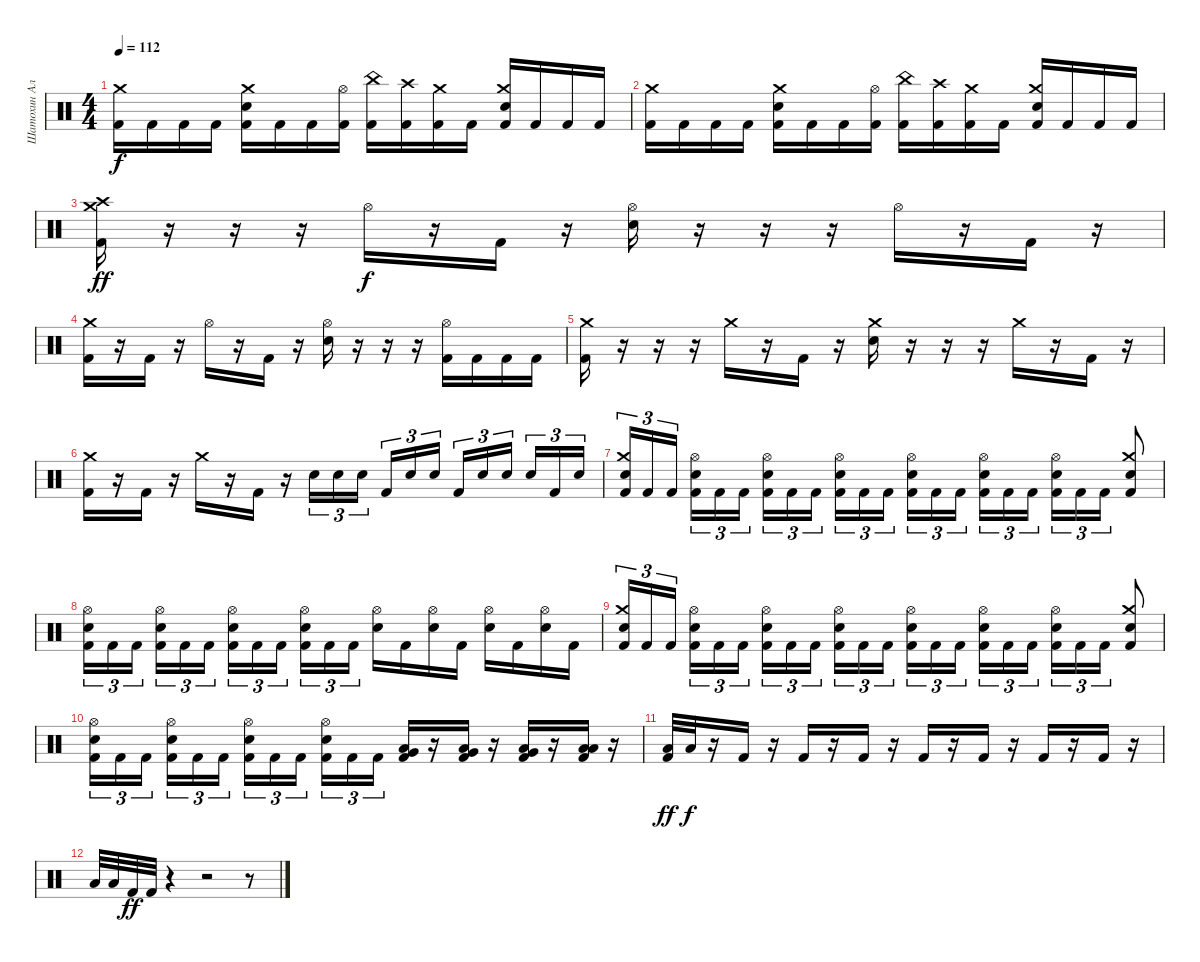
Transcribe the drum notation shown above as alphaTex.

\track ("Шатохин Алексей" "Шатохин Ал") {instrument percussion}
\staff {score}
\articulation defaults
\ts (4 4)
\tempo 112
\clef neutral
\ks c
("Kick (hit) 2" "Crash medium (hit)").16{dy f} "Kick (hit) 2".16 "Kick (hit) 2".16 "Kick (hit) 2".16 ("Kick (hit) 2" "Electric Snare (hit)" "Crash medium (hit)").16 "Kick (hit) 2".16 "Kick (hit) 2".16 ("Kick (hit) 2" "Hi-Hat (open)").16 ("Kick (hit) 2" "China (hit)").16 ("Kick (hit) 2" "Crash high (hit)").16 ("Kick (hit) 2" "Crash medium (hit)").16 "Kick (hit) 2".16 ("Kick (hit) 2" "Electric Snare (hit)" "Crash medium (hit)").16 "Kick (hit) 2".16 "Kick (hit) 2".16 "Kick (hit) 2".16 |
("Kick (hit) 2" "Crash medium (hit)").16 "Kick (hit) 2".16 "Kick (hit) 2".16 "Kick (hit) 2".16 ("Kick (hit) 2" "Electric Snare (hit)" "Crash medium (hit)").16 "Kick (hit) 2".16 "Kick (hit) 2".16 ("Kick (hit) 2" "Hi-Hat (open)").16 ("Kick (hit) 2" "China (hit)").16 ("Kick (hit) 2" "Crash high (hit)").16 ("Kick (hit) 2" "Crash medium (hit)").16 "Kick (hit) 2".16 ("Kick (hit) 2" "Electric Snare (hit)" "Crash medium (hit)").16 "Kick (hit) 2".16 "Kick (hit) 2".16 "Kick (hit) 2".16 |
("Crash high (hit)" "Crash medium (hit)" "Kick (hit) 2").16{dy ff} r.16 r.16 r.16 "Hi-Hat (open)".16{dy f} r.16 "Kick (hit) 2".16 r.16 ("Hi-Hat (open)" "Electric Snare (hit)").16 r.16 r.16 r.16 "Hi-Hat (open)".16 r.16 "Kick (hit) 2".16 r.16 |
("Crash medium (hit)" "Kick (hit) 2").16 r.16 "Kick (hit) 2".16 r.16 "Hi-Hat (open)".16 r.16 "Kick (hit) 2".16 r.16 ("Hi-Hat (open)" "Electric Snare (hit)").16 r.16 r.16 r.16 ("Hi-Hat (open)" "Kick (hit) 2").16 "Kick (hit) 2".16 "Kick (hit) 2".16 "Kick (hit) 2".16 |
("Crash medium (hit)" "Kick (hit) 2").16 r.16 r.16 r.16 "Crash medium (hit)".16 r.16 "Kick (hit) 2".16 r.16 ("Crash medium (hit)" "Electric Snare (hit)").16 r.16 r.16 r.16 "Crash medium (hit)".16 r.16 "Kick (hit) 2".16 r.16 |
("Crash medium (hit)" "Kick (hit) 2").16 r.16 "Kick (hit) 2".16 r.16 "Crash medium (hit)".16 r.16 "Kick (hit) 2".16 r.16 "Electric Snare (hit)".16{tu (3 2)} "Electric Snare (hit)".16{tu (3 2)} "Electric Snare (hit)".16{tu (3 2) beam splitsecondary} "Kick (hit) 2".16{tu (3 2)} "Electric Snare (hit)".16{tu (3 2)} "Electric Snare (hit)".16{tu (3 2)} "Kick (hit) 2".16{tu (3 2)} "Electric Snare (hit)".16{tu (3 2)} "Electric Snare (hit)".16{tu (3 2) beam splitsecondary} "Electric Snare (hit)".16{tu (3 2)} "Kick (hit) 2".16{tu (3 2)} "Electric Snare (hit)".16{tu (3 2)} |
("Crash medium (hit)" "Electric Snare (hit)" "Kick (hit) 2").16{tu (3 2)} "Kick (hit) 2".16{tu (3 2)} "Kick (hit) 2".16{tu (3 2) beam splitsecondary} ("Hi-Hat (open)" "Electric Snare (hit)" "Kick (hit) 2").16{tu (3 2)} "Kick (hit) 2".16{tu (3 2)} "Kick (hit) 2".16{tu (3 2)} ("Hi-Hat (open)" "Electric Snare (hit)" "Kick (hit) 2").16{tu (3 2)} "Kick (hit) 2".16{tu (3 2)} "Kick (hit) 2".16{tu (3 2) beam splitsecondary} ("Hi-Hat (open)" "Electric Snare (hit)" "Kick (hit) 2").16{tu (3 2)} "Kick (hit) 2".16{tu (3 2)} "Kick (hit) 2".16{tu (3 2)} ("Hi-Hat (open)" "Electric Snare (hit)" "Kick (hit) 2").16{tu (3 2)} "Kick (hit) 2".16{tu (3 2)} "Kick (hit) 2".16{tu (3 2) beam splitsecondary} ("Hi-Hat (open)" "Electric Snare (hit)" "Kick (hit) 2").16{tu (3 2)} "Kick (hit) 2".16{tu (3 2)} "Kick (hit) 2".16{tu (3 2)} ("Hi-Hat (open)" "Electric Snare (hit)" "Kick (hit) 2").16{tu (3 2)} "Kick (hit) 2".16{tu (3 2)} "Kick (hit) 2".16{tu (3 2)} ("Crash medium (hit)" "Electric Snare (hit)" "Kick (hit) 2").8 |
("Hi-Hat (open)" "Electric Snare (hit)" "Kick (hit) 2").16{tu (3 2)} "Kick (hit) 2".16{tu (3 2)} "Kick (hit) 2".16{tu (3 2) beam splitsecondary} ("Hi-Hat (open)" "Electric Snare (hit)" "Kick (hit) 2").16{tu (3 2)} "Kick (hit) 2".16{tu (3 2)} "Kick (hit) 2".16{tu (3 2)} ("Hi-Hat (open)" "Electric Snare (hit)" "Kick (hit) 2").16{tu (3 2)} "Kick (hit) 2".16{tu (3 2)} "Kick (hit) 2".16{tu (3 2) beam splitsecondary} ("Hi-Hat (open)" "Electric Snare (hit)" "Kick (hit) 2").16{tu (3 2)} "Kick (hit) 2".16{tu (3 2)} "Kick (hit) 2".16{tu (3 2)} ("Hi-Hat (open)" "Electric Snare (hit)").16 "Kick (hit) 2".16 ("Hi-Hat (open)" "Electric Snare (hit)").16 "Kick (hit) 2".16 ("Hi-Hat (open)" "Electric Snare (hit)").16 "Kick (hit) 2".16 ("Hi-Hat (open)" "Electric Snare (hit)").16 "Kick (hit) 2".16 |
("Crash medium (hit)" "Electric Snare (hit)" "Kick (hit) 2").16{tu (3 2)} "Kick (hit) 2".16{tu (3 2)} "Kick (hit) 2".16{tu (3 2) beam splitsecondary} ("Hi-Hat (open)" "Electric Snare (hit)" "Kick (hit) 2").16{tu (3 2)} "Kick (hit) 2".16{tu (3 2)} "Kick (hit) 2".16{tu (3 2)} ("Hi-Hat (open)" "Electric Snare (hit)" "Kick (hit) 2").16{tu (3 2)} "Kick (hit) 2".16{tu (3 2)} "Kick (hit) 2".16{tu (3 2) beam splitsecondary} ("Hi-Hat (open)" "Electric Snare (hit)" "Kick (hit) 2").16{tu (3 2)} "Kick (hit) 2".16{tu (3 2)} "Kick (hit) 2".16{tu (3 2)} ("Hi-Hat (open)" "Electric Snare (hit)" "Kick (hit) 2").16{tu (3 2)} "Kick (hit) 2".16{tu (3 2)} "Kick (hit) 2".16{tu (3 2) beam splitsecondary} ("Hi-Hat (open)" "Electric Snare (hit)" "Kick (hit) 2").16{tu (3 2)} "Kick (hit) 2".16{tu (3 2)} "Kick (hit) 2".16{tu (3 2)} ("Hi-Hat (open)" "Electric Snare (hit)" "Kick (hit) 2").16{tu (3 2)} "Kick (hit) 2".16{tu (3 2)} "Kick (hit) 2".16{tu (3 2)} ("Crash medium (hit)" "Electric Snare (hit)" "Kick (hit) 2").8 |
("Hi-Hat (open)" "Electric Snare (hit)" "Kick (hit) 2").16{tu (3 2)} "Kick (hit) 2".16{tu (3 2)} "Kick (hit) 2".16{tu (3 2) beam splitsecondary} ("Hi-Hat (open)" "Electric Snare (hit)" "Kick (hit) 2").16{tu (3 2)} "Kick (hit) 2".16{tu (3 2)} "Kick (hit) 2".16{tu (3 2)} ("Hi-Hat (open)" "Electric Snare (hit)" "Kick (hit) 2").16{tu (3 2)} "Kick (hit) 2".16{tu (3 2)} "Kick (hit) 2".16{tu (3 2) beam splitsecondary} ("Hi-Hat (open)" "Electric Snare (hit)" "Kick (hit) 2").16{tu (3 2)} "Kick (hit) 2".16{tu (3 2)} "Kick (hit) 2".16{tu (3 2)} ("Low Tom (hit)" "Very Low Tom (hit)" "Kick (hit) 2").16 r.16 ("Low Tom (hit)" "Very Low Tom (hit)" "Kick (hit) 2").16 r.16 ("Low Floor Tom (hit)" "Very Low Tom (hit)" "Kick (hit) 2").16 r.16 ("Low Floor Tom (hit)" "Low Floor Tom (hit)" "Kick (hit) 2").16 r.16 |
("Low Floor Tom (hit)" "Kick (hit) 2").32{dy ff} "Low Floor Tom (hit)".32{dy f} r.16 "Kick (hit) 2".16 r.16 "Kick (hit) 2".16 r.16 "Kick (hit) 2".16 r.16 "Kick (hit) 2".16 r.16 "Kick (hit) 2".16 r.16 "Kick (hit) 2".16 r.16 "Kick (hit) 2".16 r.16 |
"Low Floor Tom (hit)".32 "Low Floor Tom (hit)".32 "Kick (hit) 2".32{dy ff} "Kick (hit) 2".32 r.4 r.2 r.8
